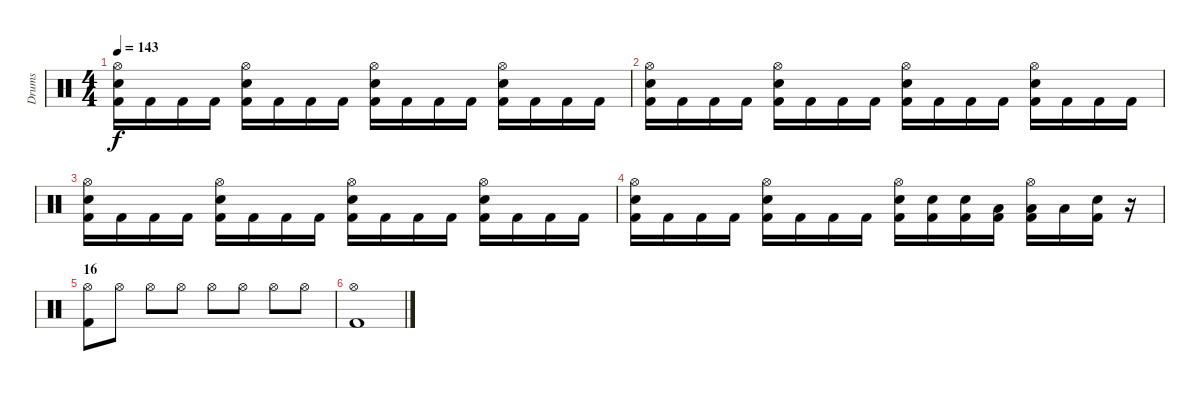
\track ("Drums" "Drums") {instrument percussion}
\staff {score}
\articulation defaults
\ts (4 4)
\tempo 143
\clef neutral
\ks c
("Hi-Hat (open)" "Kick (hit) 2" "Electric Snare (hit)").16{dy f} "Kick (hit) 2".16 "Kick (hit) 2".16 "Kick (hit) 2".16 ("Hi-Hat (open)" "Kick (hit) 2" "Electric Snare (hit)").16 "Kick (hit) 2".16 "Kick (hit) 2".16 "Kick (hit) 2".16 ("Hi-Hat (open)" "Kick (hit) 2" "Electric Snare (hit)").16 "Kick (hit) 2".16 "Kick (hit) 2".16 "Kick (hit) 2".16 ("Hi-Hat (open)" "Kick (hit) 2" "Electric Snare (hit)").16 "Kick (hit) 2".16 "Kick (hit) 2".16 "Kick (hit) 2".16 |
("Hi-Hat (open)" "Kick (hit) 2" "Electric Snare (hit)").16 "Kick (hit) 2".16 "Kick (hit) 2".16 "Kick (hit) 2".16 ("Hi-Hat (open)" "Kick (hit) 2" "Electric Snare (hit)").16 "Kick (hit) 2".16 "Kick (hit) 2".16 "Kick (hit) 2".16 ("Hi-Hat (open)" "Kick (hit) 2" "Electric Snare (hit)").16 "Kick (hit) 2".16 "Kick (hit) 2".16 "Kick (hit) 2".16 ("Hi-Hat (open)" "Kick (hit) 2" "Electric Snare (hit)").16 "Kick (hit) 2".16 "Kick (hit) 2".16 "Kick (hit) 2".16 |
("Hi-Hat (open)" "Kick (hit) 2" "Electric Snare (hit)").16 "Kick (hit) 2".16 "Kick (hit) 2".16 "Kick (hit) 2".16 ("Hi-Hat (open)" "Kick (hit) 2" "Electric Snare (hit)").16 "Kick (hit) 2".16 "Kick (hit) 2".16 "Kick (hit) 2".16 ("Hi-Hat (open)" "Kick (hit) 2" "Electric Snare (hit)").16 "Kick (hit) 2".16 "Kick (hit) 2".16 "Kick (hit) 2".16 ("Hi-Hat (open)" "Kick (hit) 2" "Electric Snare (hit)").16 "Kick (hit) 2".16 "Kick (hit) 2".16 "Kick (hit) 2".16 |
("Hi-Hat (open)" "Kick (hit) 2" "Electric Snare (hit)").16 "Kick (hit) 2".16 "Kick (hit) 2".16 "Kick (hit) 2".16 ("Hi-Hat (open)" "Kick (hit) 2" "Electric Snare (hit)").16 "Kick (hit) 2".16 "Kick (hit) 2".16 "Kick (hit) 2".16 ("Hi-Hat (open)" "Kick (hit) 2" "Electric Snare (hit)").16 ("Kick (hit) 2" "Electric Snare (hit)").16 ("Kick (hit) 2" "Electric Snare (hit)").16 ("Kick (hit) 2" "Low Tom (hit)").16 ("Hi-Hat (open)" "Kick (hit) 2" "Low Tom (hit)").16 "Low Tom (hit)".16 ("Kick (hit) 2" "Electric Snare (hit)").16 r.16 |
\section ("" "16")
("Kick (hit) 2" "Hi-Hat (open)").8 "Hi-Hat (open)".8 "Hi-Hat (open)".8 "Hi-Hat (open)".8 "Hi-Hat (open)".8 "Hi-Hat (open)".8 "Hi-Hat (open)".8 "Hi-Hat (open)".8 |
("Kick (hit) 2" "Hi-Hat (open)").1
